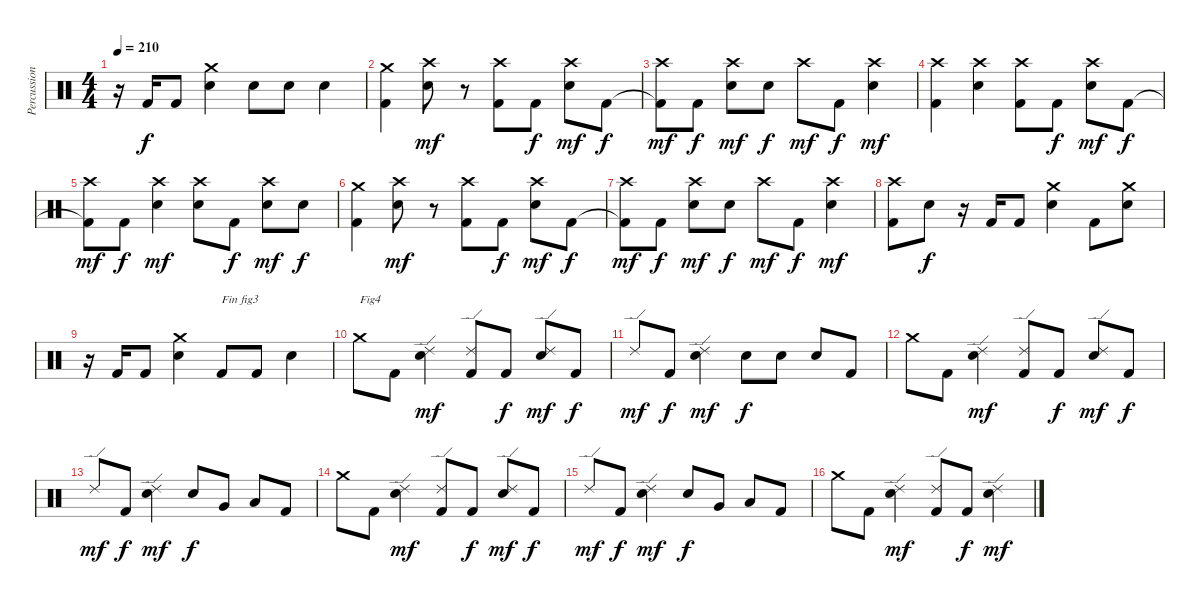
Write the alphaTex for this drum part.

\track ("Percussions" "Percussion") {instrument percussion}
\staff {score}
\articulation defaults
\ts (4 4)
\tempo 210
\clef neutral
\ks c
r.16{dy f} "Kick (hit) 2".16 "Kick (hit) 2".8 ("Electric Snare (hit)" "Crash medium (hit)").4 "Electric Snare (hit)".8 "Electric Snare (hit)".8 "Electric Snare (hit)".4 |
("Kick (hit) 2" "Crash medium (hit)").4 ("Electric Snare (hit)" "Crash high (hit)").8{dy mf} r.8 ("Kick (hit) 2" "Crash high (hit)").8 "Kick (hit) 2".8{dy f} ("Electric Snare (hit)" "Crash high (hit)").8{dy mf} "Kick (hit) 2".8{dy f} |
("Kick (hit) 2"{t} "Crash high (hit)").8{dy mf} "Kick (hit) 2".8{dy f} ("Electric Snare (hit)" "Crash high (hit)").8{dy mf} "Electric Snare (hit)".8{dy f} "Crash high (hit)".8{dy mf} "Kick (hit) 2".8{dy f} ("Electric Snare (hit)" "Crash high (hit)").4{dy mf} |
("Kick (hit) 2" "Crash high (hit)").4 ("Electric Snare (hit)" "Crash high (hit)").4 ("Kick (hit) 2" "Crash high (hit)").8 "Kick (hit) 2".8{dy f} ("Electric Snare (hit)" "Crash high (hit)").8{dy mf} "Kick (hit) 2".8{dy f} |
("Kick (hit) 2"{t} "Crash high (hit)").8{dy mf} "Kick (hit) 2".8{dy f} ("Electric Snare (hit)" "Crash high (hit)").4{dy mf} ("Electric Snare (hit)" "Crash high (hit)").8 "Kick (hit) 2".8{dy f} ("Electric Snare (hit)" "Crash high (hit)").8{dy mf} "Electric Snare (hit)".8{dy f} |
("Kick (hit) 2" "Crash medium (hit)").4 ("Electric Snare (hit)" "Crash high (hit)").8{dy mf} r.8 ("Kick (hit) 2" "Crash high (hit)").8 "Kick (hit) 2".8{dy f} ("Electric Snare (hit)" "Crash high (hit)").8{dy mf} "Kick (hit) 2".8{dy f} |
("Kick (hit) 2"{t} "Crash high (hit)").8{dy mf} "Kick (hit) 2".8{dy f} ("Electric Snare (hit)" "Crash high (hit)").8{dy mf} "Electric Snare (hit)".8{dy f} "Crash high (hit)".8{dy mf} "Kick (hit) 2".8{dy f} ("Electric Snare (hit)" "Crash high (hit)").4{dy mf} |
("Kick (hit) 2" "Crash high (hit)").8 "Electric Snare (hit)".8{dy f} r.16 "Kick (hit) 2".16 "Kick (hit) 2".8 ("Electric Snare (hit)" "Crash medium (hit)").4 "Kick (hit) 2".8 ("Electric Snare (hit)" "Crash medium (hit)").8 |
r.16 "Kick (hit) 2".16 "Kick (hit) 2".8 ("Electric Snare (hit)" "Crash medium (hit)").4 "Kick (hit) 2".8{txt "Fin fig3"} "Kick (hit) 2".8 "Electric Snare (hit)".4 |
"Crash medium (hit)".8{txt "Fig4"} "Kick (hit) 2".8 ("Electric Snare (hit)" "Ride (edge) 2").4{dy mf} ("Kick (hit) 2" "Ride (edge) 2").8 "Kick (hit) 2".8{dy f} ("Electric Snare (hit)" "Ride (edge) 2").8{dy mf} "Kick (hit) 2".8{dy f} |
"Ride (edge) 2".8{dy mf} "Kick (hit) 2".8{dy f} ("Electric Snare (hit)" "Ride (edge) 2").4{dy mf} "Electric Snare (hit)".8{dy f} "Electric Snare (hit)".8 "Electric Snare (hit)".8 "Kick (hit) 2".8 |
"Crash medium (hit)".8 "Kick (hit) 2".8 ("Electric Snare (hit)" "Ride (edge) 2").4{dy mf} ("Kick (hit) 2" "Ride (edge) 2").8 "Kick (hit) 2".8{dy f} ("Electric Snare (hit)" "Ride (edge) 2").8{dy mf} "Kick (hit) 2".8{dy f} |
"Ride (edge) 2".8{dy mf} "Kick (hit) 2".8{dy f} ("Electric Snare (hit)" "Ride (edge) 2").4{dy mf} "Electric Snare (hit)".8{dy f} "Very Low Tom (hit)".8 "Low Floor Tom (hit)".8 "Kick (hit) 2".8 |
"Crash medium (hit)".8 "Kick (hit) 2".8 ("Electric Snare (hit)" "Ride (edge) 2").4{dy mf} ("Kick (hit) 2" "Ride (edge) 2").8 "Kick (hit) 2".8{dy f} ("Electric Snare (hit)" "Ride (edge) 2").8{dy mf} "Kick (hit) 2".8{dy f} |
"Ride (edge) 2".8{dy mf} "Kick (hit) 2".8{dy f} ("Electric Snare (hit)" "Ride (edge) 2").4{dy mf} "Electric Snare (hit)".8{dy f} "Very Low Tom (hit)".8 "Low Floor Tom (hit)".8 "Kick (hit) 2".8 |
"Crash medium (hit)".8 "Kick (hit) 2".8 ("Electric Snare (hit)" "Ride (edge) 2").4{dy mf} ("Kick (hit) 2" "Ride (edge) 2").8 "Kick (hit) 2".8{dy f} ("Electric Snare (hit)" "Ride (edge) 2").4{dy mf}
